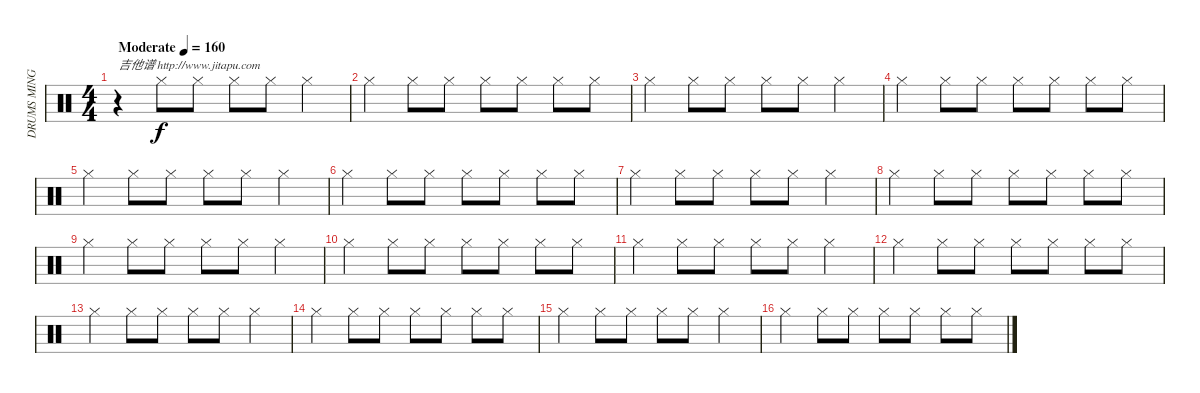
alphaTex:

\track ("DRUMS MING" "DRUMS MING") {instrument percussion}
\staff {score}
\articulation defaults
\ts (4 4)
\tempo (160 "Moderate")
\clef neutral
\ks c
r.4{txt "吉他谱 http://www.jitapu.com" dy f} "Hi-Hat (closed)".8 "Hi-Hat (closed)".8 "Hi-Hat (closed)".8 "Hi-Hat (closed)".8 "Hi-Hat (closed)".4 |
"Hi-Hat (closed)".4 "Hi-Hat (closed)".8 "Hi-Hat (closed)".8 "Hi-Hat (closed)".8 "Hi-Hat (closed)".8 "Hi-Hat (closed)".8 "Hi-Hat (closed)".8 |
"Hi-Hat (closed)".4 "Hi-Hat (closed)".8 "Hi-Hat (closed)".8 "Hi-Hat (closed)".8 "Hi-Hat (closed)".8 "Hi-Hat (closed)".4 |
"Hi-Hat (closed)".4 "Hi-Hat (closed)".8 "Hi-Hat (closed)".8 "Hi-Hat (closed)".8 "Hi-Hat (closed)".8 "Hi-Hat (closed)".8 "Hi-Hat (closed)".8 |
"Hi-Hat (closed)".4 "Hi-Hat (closed)".8 "Hi-Hat (closed)".8 "Hi-Hat (closed)".8 "Hi-Hat (closed)".8 "Hi-Hat (closed)".4 |
"Hi-Hat (closed)".4 "Hi-Hat (closed)".8 "Hi-Hat (closed)".8 "Hi-Hat (closed)".8 "Hi-Hat (closed)".8 "Hi-Hat (closed)".8 "Hi-Hat (closed)".8 |
"Hi-Hat (closed)".4 "Hi-Hat (closed)".8 "Hi-Hat (closed)".8 "Hi-Hat (closed)".8 "Hi-Hat (closed)".8 "Hi-Hat (closed)".4 |
"Hi-Hat (closed)".4 "Hi-Hat (closed)".8 "Hi-Hat (closed)".8 "Hi-Hat (closed)".8 "Hi-Hat (closed)".8 "Hi-Hat (closed)".8 "Hi-Hat (closed)".8 |
"Hi-Hat (closed)".4 "Hi-Hat (closed)".8 "Hi-Hat (closed)".8 "Hi-Hat (closed)".8 "Hi-Hat (closed)".8 "Hi-Hat (closed)".4 |
"Hi-Hat (closed)".4 "Hi-Hat (closed)".8 "Hi-Hat (closed)".8 "Hi-Hat (closed)".8 "Hi-Hat (closed)".8 "Hi-Hat (closed)".8 "Hi-Hat (closed)".8 |
"Hi-Hat (closed)".4 "Hi-Hat (closed)".8 "Hi-Hat (closed)".8 "Hi-Hat (closed)".8 "Hi-Hat (closed)".8 "Hi-Hat (closed)".4 |
"Hi-Hat (closed)".4 "Hi-Hat (closed)".8 "Hi-Hat (closed)".8 "Hi-Hat (closed)".8 "Hi-Hat (closed)".8 "Hi-Hat (closed)".8 "Hi-Hat (closed)".8 |
"Hi-Hat (closed)".4 "Hi-Hat (closed)".8 "Hi-Hat (closed)".8 "Hi-Hat (closed)".8 "Hi-Hat (closed)".8 "Hi-Hat (closed)".4 |
"Hi-Hat (closed)".4 "Hi-Hat (closed)".8 "Hi-Hat (closed)".8 "Hi-Hat (closed)".8 "Hi-Hat (closed)".8 "Hi-Hat (closed)".8 "Hi-Hat (closed)".8 |
"Hi-Hat (closed)".4 "Hi-Hat (closed)".8 "Hi-Hat (closed)".8 "Hi-Hat (closed)".8 "Hi-Hat (closed)".8 "Hi-Hat (closed)".4 |
"Hi-Hat (closed)".4 "Hi-Hat (closed)".8 "Hi-Hat (closed)".8 "Hi-Hat (closed)".8 "Hi-Hat (closed)".8 "Hi-Hat (closed)".8 "Hi-Hat (closed)".8
